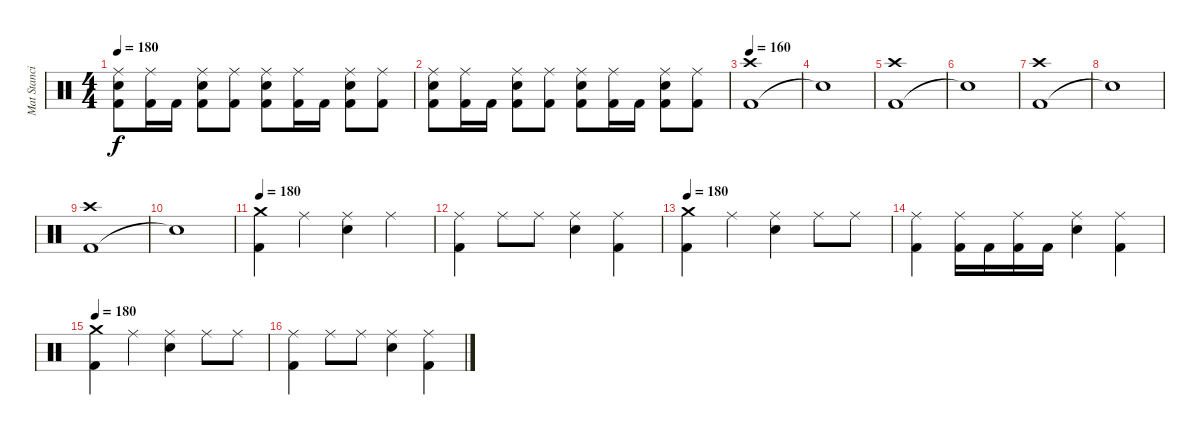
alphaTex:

\track ("Mat Stancioiu" "Mat Stanci") {instrument percussion}
\staff {score}
\articulation defaults
\ts (4 4)
\tempo 180
\clef neutral
\ks c
("Kick (hit) 2" "Electric Snare (hit)" "Ride (middle)").8{dy f} ("Kick (hit) 2" "Ride (middle)").16 "Kick (hit) 2".16 ("Kick (hit) 2" "Electric Snare (hit)" "Ride (middle)").8 ("Kick (hit) 2" "Ride (middle)").8 ("Kick (hit) 2" "Electric Snare (hit)" "Ride (middle)").8 ("Kick (hit) 2" "Ride (middle)").16 "Kick (hit) 2".16 ("Kick (hit) 2" "Electric Snare (hit)" "Ride (middle)").8 ("Kick (hit) 2" "Ride (middle)").8 |
("Kick (hit) 2" "Electric Snare (hit)" "Ride (middle)").8 ("Kick (hit) 2" "Ride (middle)").16 "Kick (hit) 2".16 ("Kick (hit) 2" "Electric Snare (hit)" "Ride (middle)").8 ("Kick (hit) 2" "Ride (middle)").8 ("Kick (hit) 2" "Electric Snare (hit)" "Ride (middle)").8 ("Kick (hit) 2" "Ride (middle)").16 "Kick (hit) 2".16 ("Kick (hit) 2" "Electric Snare (hit)" "Ride (middle)").8 ("Kick (hit) 2" "Ride (middle)").8 |
\tempo 160
("Kick (hit) 2" "Crash high (hit)").1 |
"Snare (hit)"{t}.1 |
("Kick (hit) 2" "Crash high (hit)").1 |
"Snare (hit)"{t}.1 |
("Kick (hit) 2" "Crash high (hit)").1 |
"Snare (hit)"{t}.1 |
("Kick (hit) 2" "Crash high (hit)").1 |
"Snare (hit)"{t}.1 |
\tempo 180
("Kick (hit) 2" "Crash medium (hit)").4 "Ride (middle)".4 ("Electric Snare (hit)" "Ride (middle)").4 "Ride (middle)".4 |
("Kick (hit) 2" "Ride (middle)").4 "Ride (middle)".8 "Ride (middle)".8 ("Electric Snare (hit)" "Ride (middle)").4 ("Kick (hit) 2" "Ride (middle)").4 |
\tempo 180
("Kick (hit) 2" "Crash medium (hit)").4 "Ride (middle)".4 ("Electric Snare (hit)" "Ride (middle)").4 "Ride (middle)".8 "Ride (middle)".8 |
("Kick (hit) 2" "Ride (middle)").4 ("Kick (hit) 2" "Ride (middle)").16 "Kick (hit) 2".16 ("Kick (hit) 2" "Ride (middle)").16 "Kick (hit) 2".16 ("Electric Snare (hit)" "Ride (middle)").4 ("Kick (hit) 2" "Ride (middle)").4 |
\tempo 180
("Kick (hit) 2" "Crash medium (hit)").4 "Ride (middle)".4 ("Electric Snare (hit)" "Ride (middle)").4 "Ride (middle)".8 "Ride (middle)".8 |
("Kick (hit) 2" "Ride (middle)").4 "Ride (middle)".8 "Ride (middle)".8 ("Electric Snare (hit)" "Ride (middle)").4 ("Kick (hit) 2" "Ride (middle)").4
